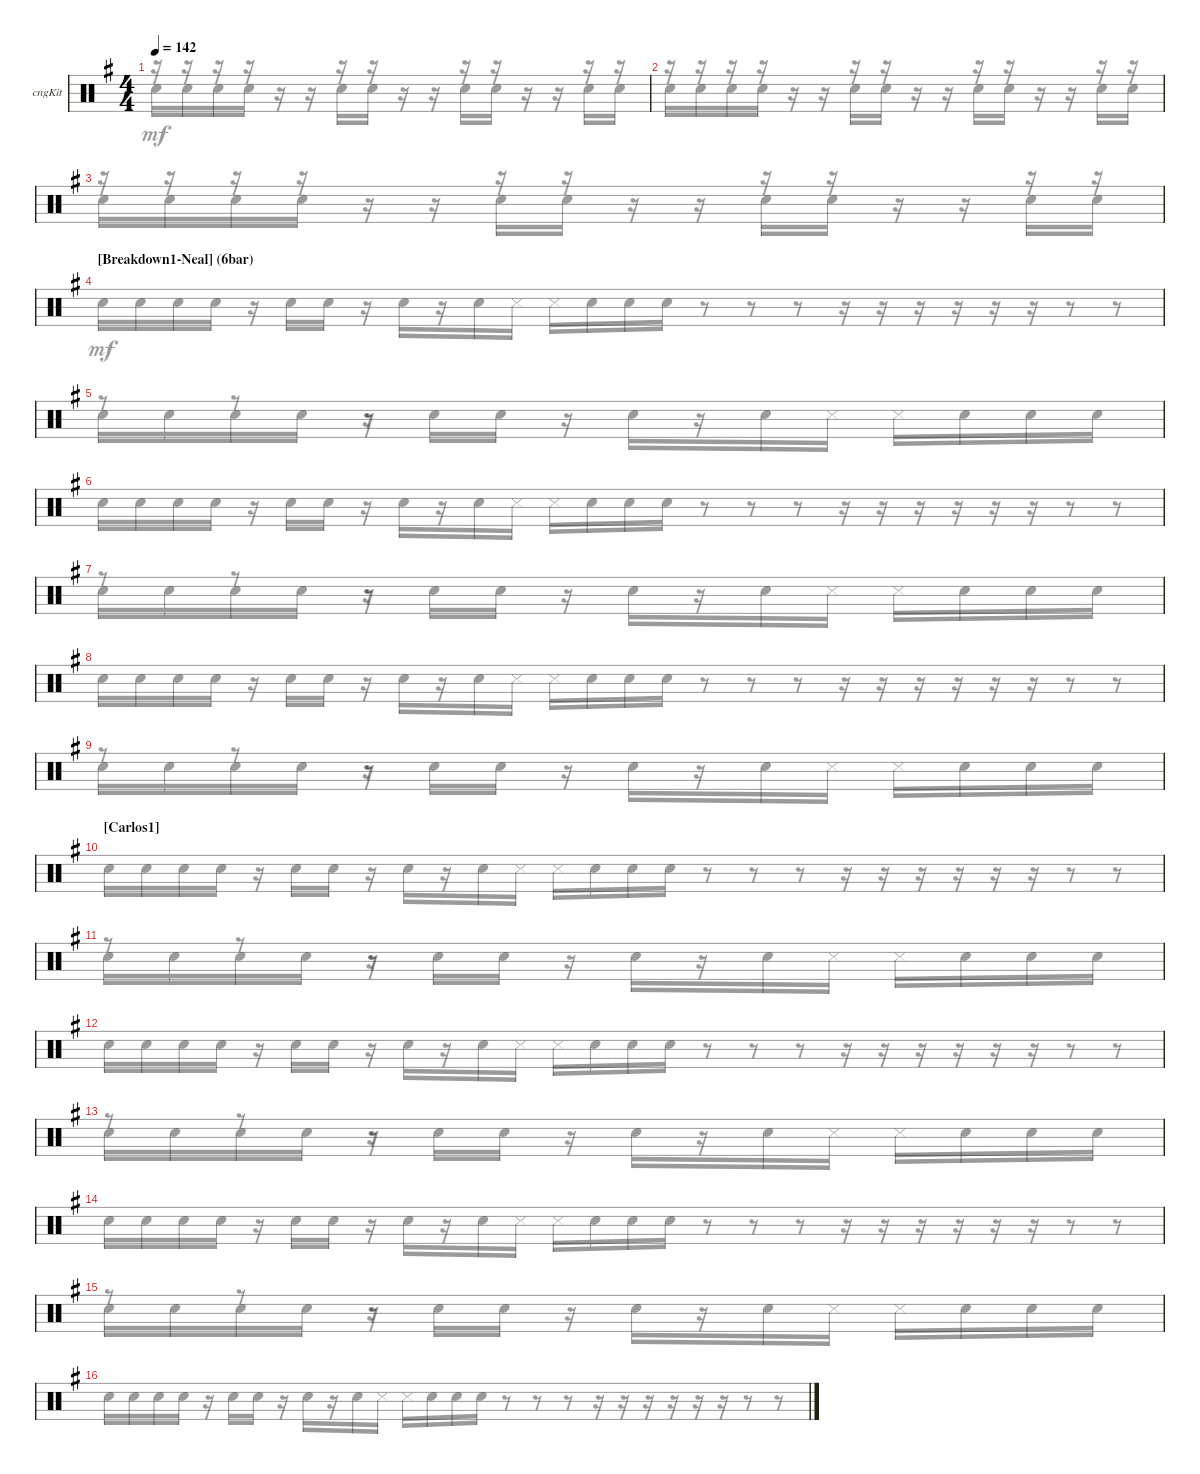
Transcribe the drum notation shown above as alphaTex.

\bracketExtendMode groupsimilarinstruments
\firstSystemTrackNameOrientation horizontal
\otherSystemsTrackNameOrientation horizontal
\track ("Congas" "cngKit") {instrument percussion}
\staff {score}
\articulation defaults
\voice
\ts (4 4)
\tempo 142
\clef neutral
\ks eminor
|
|
|
\section ("" "[Breakdown1-Neal] (6bar)    ")
|
|
|
|
|
|
\section ("" "[Carlos1] ")
|
|
|
|
|
|
\voice
\clef neutral
\ks eminor
r.16{dy mf} r.16 r.16 r.16 r.16 r.16 r.16 r.16 r.16 r.16 r.16 r.16 r.16 r.16 r.16 r.16 |
r.16 r.16 r.16 r.16 r.16 r.16 r.16 r.16 r.16 r.16 r.16 r.16 r.16 r.16 r.16 r.16 |
r.16 r.16 r.16 r.16 r.16 r.16 r.16 r.16 r.16 r.16 r.16 r.16 r.16 r.16 r.16 r.16 |
"Snare (hit) 2".16 "Snare (hit) 2".16 "Snare (hit) 2".16 "Snare (hit) 2".16 r.16 "Snare (hit) 2".16 "Snare (hit) 2".16 r.16 "Snare (hit) 2".16 r.16 "Snare (hit) 2".16 "Snare (side stick) 3".16 "Snare (side stick) 3".16 "Snare (hit) 2".16 "Snare (hit) 2".16 "Snare (hit) 2".16 r.8 r.8 r.8 r.16 r.16 r.16 r.16 r.16 r.16 r.8 r.8 |
r.8 r.8 r.8 |
"Snare (hit) 2".16 "Snare (hit) 2".16 "Snare (hit) 2".16 "Snare (hit) 2".16 r.16 "Snare (hit) 2".16 "Snare (hit) 2".16 r.16 "Snare (hit) 2".16 r.16 "Snare (hit) 2".16 "Snare (side stick) 3".16 "Snare (side stick) 3".16 "Snare (hit) 2".16 "Snare (hit) 2".16 "Snare (hit) 2".16 r.8 r.8 r.8 r.16 r.16 r.16 r.16 r.16 r.16 r.8 r.8 |
r.8 r.8 r.8 |
"Snare (hit) 2".16 "Snare (hit) 2".16 "Snare (hit) 2".16 "Snare (hit) 2".16 r.16 "Snare (hit) 2".16 "Snare (hit) 2".16 r.16 "Snare (hit) 2".16 r.16 "Snare (hit) 2".16 "Snare (side stick) 3".16 "Snare (side stick) 3".16 "Snare (hit) 2".16 "Snare (hit) 2".16 "Snare (hit) 2".16 r.8 r.8 r.8 r.16 r.16 r.16 r.16 r.16 r.16 r.8 r.8 |
r.8 r.8 r.8 |
"Snare (hit) 2".16 "Snare (hit) 2".16 "Snare (hit) 2".16 "Snare (hit) 2".16 r.16 "Snare (hit) 2".16 "Snare (hit) 2".16 r.16 "Snare (hit) 2".16 r.16 "Snare (hit) 2".16 "Snare (side stick) 3".16 "Snare (side stick) 3".16 "Snare (hit) 2".16 "Snare (hit) 2".16 "Snare (hit) 2".16 r.8 r.8 r.8 r.16 r.16 r.16 r.16 r.16 r.16 r.8 r.8 |
r.8 r.8 r.8 |
"Snare (hit) 2".16 "Snare (hit) 2".16 "Snare (hit) 2".16 "Snare (hit) 2".16 r.16 "Snare (hit) 2".16 "Snare (hit) 2".16 r.16 "Snare (hit) 2".16 r.16 "Snare (hit) 2".16 "Snare (side stick) 3".16 "Snare (side stick) 3".16 "Snare (hit) 2".16 "Snare (hit) 2".16 "Snare (hit) 2".16 r.8 r.8 r.8 r.16 r.16 r.16 r.16 r.16 r.16 r.8 r.8 |
r.8 r.8 r.8 |
"Snare (hit) 2".16 "Snare (hit) 2".16 "Snare (hit) 2".16 "Snare (hit) 2".16 r.16 "Snare (hit) 2".16 "Snare (hit) 2".16 r.16 "Snare (hit) 2".16 r.16 "Snare (hit) 2".16 "Snare (side stick) 3".16 "Snare (side stick) 3".16 "Snare (hit) 2".16 "Snare (hit) 2".16 "Snare (hit) 2".16 r.8 r.8 r.8 r.16 r.16 r.16 r.16 r.16 r.16 r.8 r.8 |
r.8 r.8 r.8 |
"Snare (hit) 2".16 "Snare (hit) 2".16 "Snare (hit) 2".16 "Snare (hit) 2".16 r.16 "Snare (hit) 2".16 "Snare (hit) 2".16 r.16 "Snare (hit) 2".16 r.16 "Snare (hit) 2".16 "Snare (side stick) 3".16 "Snare (side stick) 3".16 "Snare (hit) 2".16 "Snare (hit) 2".16 "Snare (hit) 2".16 r.8 r.8 r.8 r.16 r.16 r.16 r.16 r.16 r.16 r.8 r.8
\voice
\clef neutral
\ottava regular
\simile none
\ks eminor "Snare (hit) 2".16{dy mf} "Snare (hit) 2".16 "Snare (hit) 2".16 "Snare (hit) 2".16
r.16 r.16 "Snare (hit) 2".16 "Snare (hit) 2".16 r.16 r.16 "Snare (hit) 2".16 "Snare (hit) 2".16 r.16 r.16 "Snare (hit) 2".16 "Snare (hit) 2".16 |
"Snare (hit) 2".16 "Snare (hit) 2".16 "Snare (hit) 2".16 "Snare (hit) 2".16 r.16 r.16 "Snare (hit) 2".16 "Snare (hit) 2".16 r.16 r.16 "Snare (hit) 2".16 "Snare (hit) 2".16 r.16 r.16 "Snare (hit) 2".16 "Snare (hit) 2".16 |
"Snare (hit) 2".16 "Snare (hit) 2".16 "Snare (hit) 2".16 "Snare (hit) 2".16 r.16 r.16 "Snare (hit) 2".16 "Snare (hit) 2".16 r.16 r.16 "Snare (hit) 2".16 "Snare (hit) 2".16 r.16 r.16 "Snare (hit) 2".16 "Snare (hit) 2".16 |
|
"Snare (hit) 2".16 "Snare (hit) 2".16 "Snare (hit) 2".16 "Snare (hit) 2".16 r.16 "Snare (hit) 2".16 "Snare (hit) 2".16 r.16 "Snare (hit) 2".16 r.16 "Snare (hit) 2".16 "Snare (side stick) 3".16 "Snare (side stick) 3".16 "Snare (hit) 2".16 "Snare (hit) 2".16 "Snare (hit) 2".16 |
|
"Snare (hit) 2".16 "Snare (hit) 2".16 "Snare (hit) 2".16 "Snare (hit) 2".16 r.16 "Snare (hit) 2".16 "Snare (hit) 2".16 r.16 "Snare (hit) 2".16 r.16 "Snare (hit) 2".16 "Snare (side stick) 3".16 "Snare (side stick) 3".16 "Snare (hit) 2".16 "Snare (hit) 2".16 "Snare (hit) 2".16 |
|
"Snare (hit) 2".16 "Snare (hit) 2".16 "Snare (hit) 2".16 "Snare (hit) 2".16 r.16 "Snare (hit) 2".16 "Snare (hit) 2".16 r.16 "Snare (hit) 2".16 r.16 "Snare (hit) 2".16 "Snare (side stick) 3".16 "Snare (side stick) 3".16 "Snare (hit) 2".16 "Snare (hit) 2".16 "Snare (hit) 2".16 |
|
"Snare (hit) 2".16 "Snare (hit) 2".16 "Snare (hit) 2".16 "Snare (hit) 2".16 r.16 "Snare (hit) 2".16 "Snare (hit) 2".16 r.16 "Snare (hit) 2".16 r.16 "Snare (hit) 2".16 "Snare (side stick) 3".16 "Snare (side stick) 3".16 "Snare (hit) 2".16 "Snare (hit) 2".16 "Snare (hit) 2".16 |
|
"Snare (hit) 2".16 "Snare (hit) 2".16 "Snare (hit) 2".16 "Snare (hit) 2".16 r.16 "Snare (hit) 2".16 "Snare (hit) 2".16 r.16 "Snare (hit) 2".16 r.16 "Snare (hit) 2".16 "Snare (side stick) 3".16 "Snare (side stick) 3".16 "Snare (hit) 2".16 "Snare (hit) 2".16 "Snare (hit) 2".16 |
|
"Snare (hit) 2".16 "Snare (hit) 2".16 "Snare (hit) 2".16 "Snare (hit) 2".16 r.16 "Snare (hit) 2".16 "Snare (hit) 2".16 r.16 "Snare (hit) 2".16 r.16 "Snare (hit) 2".16 "Snare (side stick) 3".16 "Snare (side stick) 3".16 "Snare (hit) 2".16 "Snare (hit) 2".16 "Snare (hit) 2".16 |
